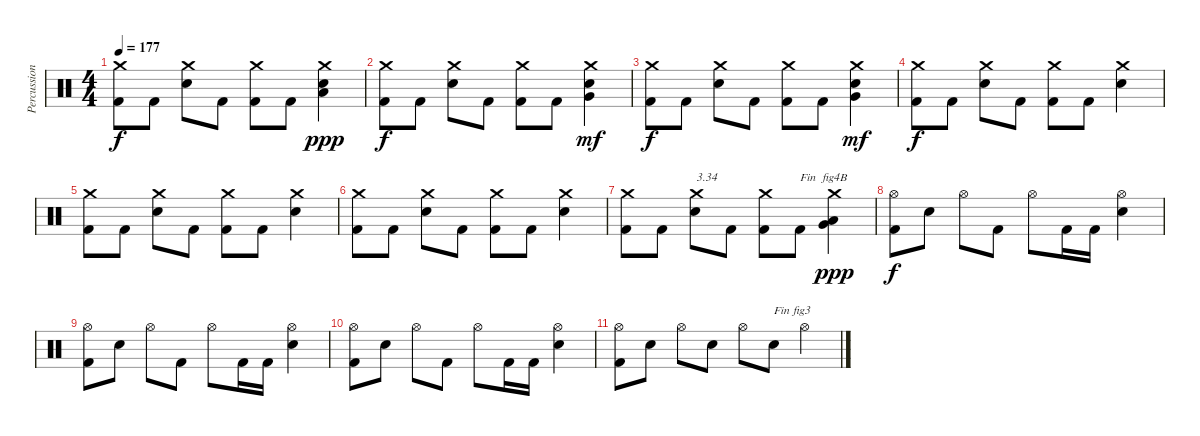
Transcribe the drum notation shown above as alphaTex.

\track ("Percussions" "Percussion") {instrument percussion}
\staff {score}
\articulation defaults
\ts (4 4)
\tempo 177
\clef neutral
\ks c
("Kick (hit) 2" "Crash medium (hit)").8{dy f} "Kick (hit) 2".8 ("Electric Snare (hit)" "Crash medium (hit)").8 "Kick (hit) 2".8 ("Kick (hit) 2" "Crash medium (hit)").8 "Kick (hit) 2".8 ("Electric Snare (hit)" "Low Floor Tom (hit)" "Crash medium (hit)").4{dy ppp} |
("Kick (hit) 2" "Crash medium (hit)").8{dy f} "Kick (hit) 2".8 ("Electric Snare (hit)" "Crash medium (hit)").8 "Kick (hit) 2".8 ("Kick (hit) 2" "Crash medium (hit)").8 "Kick (hit) 2".8 ("Electric Snare (hit)" "Very Low Tom (hit)" "Crash medium (hit)").4{dy mf} |
("Kick (hit) 2" "Crash medium (hit)").8{dy f} "Kick (hit) 2".8 ("Electric Snare (hit)" "Crash medium (hit)").8 "Kick (hit) 2".8 ("Kick (hit) 2" "Crash medium (hit)").8 "Kick (hit) 2".8 ("Electric Snare (hit)" "Very Low Tom (hit)" "Crash medium (hit)").4{dy mf} |
("Kick (hit) 2" "Crash medium (hit)").8{dy f} "Kick (hit) 2".8 ("Electric Snare (hit)" "Crash medium (hit)").8 "Kick (hit) 2".8 ("Kick (hit) 2" "Crash medium (hit)").8 "Kick (hit) 2".8 ("Electric Snare (hit)" "Crash medium (hit)").4 |
("Kick (hit) 2" "Crash medium (hit)").8 "Kick (hit) 2".8 ("Electric Snare (hit)" "Crash medium (hit)").8 "Kick (hit) 2".8 ("Kick (hit) 2" "Crash medium (hit)").8 "Kick (hit) 2".8 ("Electric Snare (hit)" "Crash medium (hit)").4 |
("Kick (hit) 2" "Crash medium (hit)").8 "Kick (hit) 2".8 ("Electric Snare (hit)" "Crash medium (hit)").8 "Kick (hit) 2".8 ("Kick (hit) 2" "Crash medium (hit)").8 "Kick (hit) 2".8 ("Electric Snare (hit)" "Crash medium (hit)").4 |
("Kick (hit) 2" "Crash medium (hit)").8 "Kick (hit) 2".8 ("Electric Snare (hit)" "Crash medium (hit)").8{txt "3.34"} "Kick (hit) 2".8 ("Kick (hit) 2" "Crash medium (hit)").8 "Kick (hit) 2".8{txt "Fin  fig4B"} ("Low Floor Tom (hit)" "Very Low Tom (hit)" "Crash medium (hit)").4{dy ppp} |
("Kick (hit) 2" "Hi-Hat (open)").8{dy f} "Electric Snare (hit)".8 "Hi-Hat (open)".8 "Kick (hit) 2".8 "Hi-Hat (open)".8 "Kick (hit) 2".16 "Kick (hit) 2".16 ("Electric Snare (hit)" "Hi-Hat (open)").4 |
("Kick (hit) 2" "Hi-Hat (open)").8 "Electric Snare (hit)".8 "Hi-Hat (open)".8 "Kick (hit) 2".8 "Hi-Hat (open)".8 "Kick (hit) 2".16 "Kick (hit) 2".16 ("Electric Snare (hit)" "Hi-Hat (open)").4 |
("Kick (hit) 2" "Hi-Hat (open)").8 "Electric Snare (hit)".8 "Hi-Hat (open)".8 "Kick (hit) 2".8 "Hi-Hat (open)".8 "Kick (hit) 2".16 "Kick (hit) 2".16 ("Electric Snare (hit)" "Hi-Hat (open)").4 |
("Kick (hit) 2" "Hi-Hat (open)").8 "Electric Snare (hit)".8 "Hi-Hat (open)".8 "Electric Snare (hit)".8 "Hi-Hat (open)".8 "Electric Snare (hit)".8{txt "Fin fig3"} "Hi-Hat (open)".4
